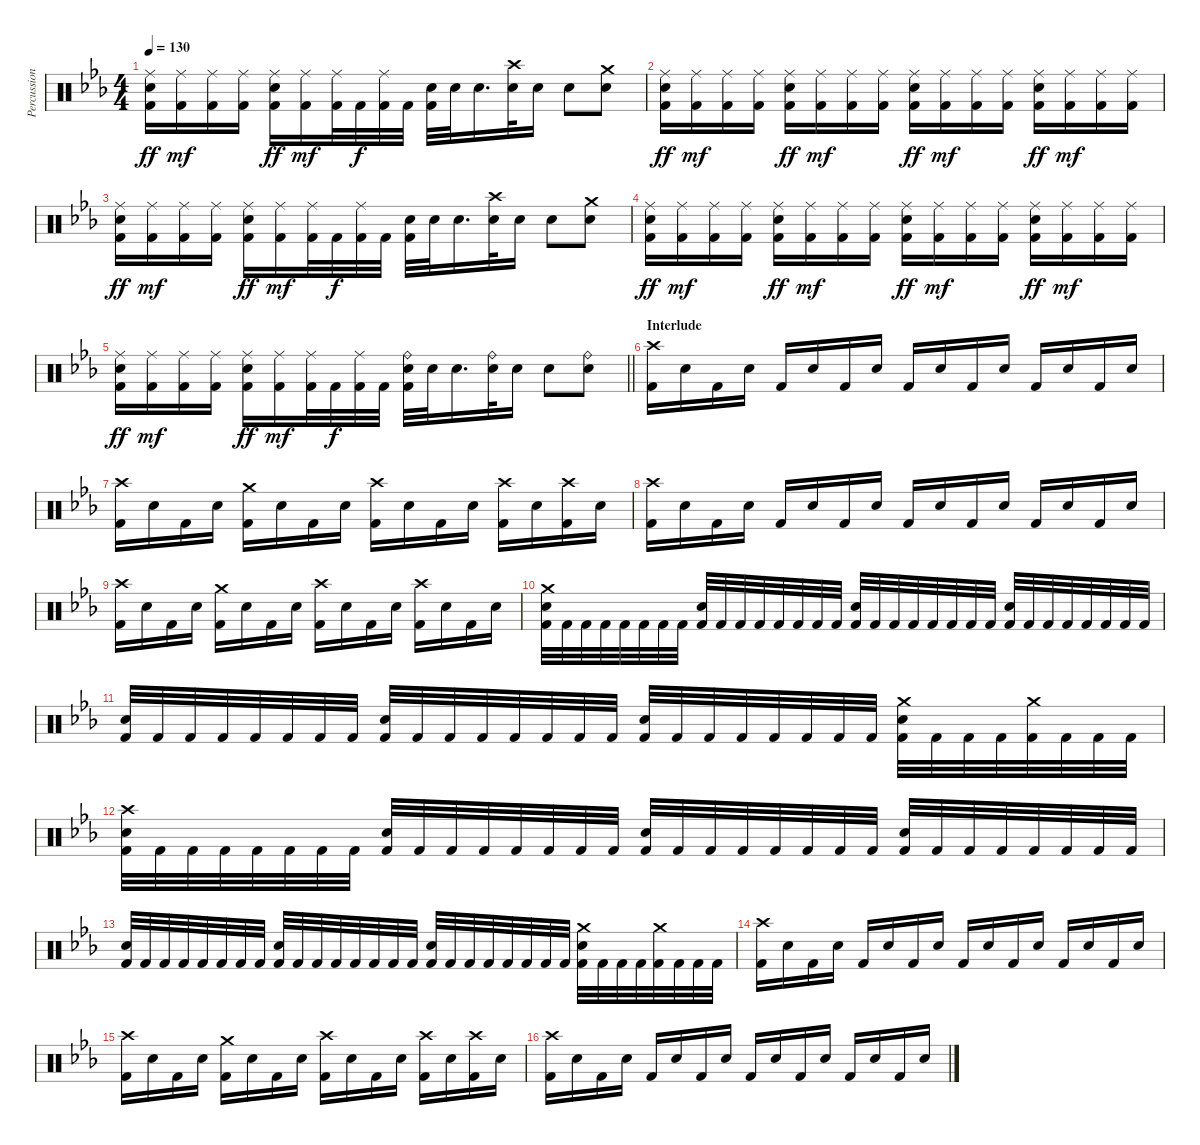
\track ("Percussion" "Percussion") {instrument percussion}
\staff {score}
\articulation defaults
\ts (4 4)
\tempo 130
\clef neutral
\ks eb
("Ride (middle)" "Electric Snare (hit)" "Kick (hit) 2").16{dy ff} ("Ride (middle)" "Kick (hit) 2").16{dy mf} ("Ride (middle)" "Kick (hit) 2").16 ("Ride (middle)" "Kick (hit) 2").16 ("Ride (middle)" "Electric Snare (hit)" "Kick (hit) 2").16{dy ff} ("Ride (middle)" "Kick (hit) 2").16{dy mf} ("Ride (middle)" "Kick (hit) 2").32 "Kick (hit) 2".32{dy f} ("Ride (middle)" "Kick (hit) 2").32 "Kick (hit) 2".32 ("Electric Snare (hit)" "Kick (hit) 2").32 "Electric Snare (hit)".32 "Electric Snare (hit)".16{d} ("Crash high (hit)" "Electric Snare (hit)").32 "Electric Snare (hit)".16 "Electric Snare (hit)".8 ("Crash medium (hit)" "Electric Snare (hit)").8 |
("Ride (middle)" "Electric Snare (hit)" "Kick (hit) 2").16{dy ff} ("Ride (middle)" "Kick (hit) 2").16{dy mf} ("Ride (middle)" "Kick (hit) 2").16 ("Ride (middle)" "Kick (hit) 2").16 ("Ride (middle)" "Electric Snare (hit)" "Kick (hit) 2").16{dy ff} ("Ride (middle)" "Kick (hit) 2").16{dy mf} ("Ride (middle)" "Kick (hit) 2").16 ("Ride (middle)" "Kick (hit) 2").16 ("Ride (middle)" "Electric Snare (hit)" "Kick (hit) 2").16{dy ff} ("Ride (middle)" "Kick (hit) 2").16{dy mf} ("Ride (middle)" "Kick (hit) 2").16 ("Ride (middle)" "Kick (hit) 2").16 ("Ride (middle)" "Electric Snare (hit)" "Kick (hit) 2").16{dy ff} ("Ride (middle)" "Kick (hit) 2").16{dy mf} ("Ride (middle)" "Kick (hit) 2").16 ("Ride (middle)" "Kick (hit) 2").16 |
("Ride (middle)" "Electric Snare (hit)" "Kick (hit) 2").16{dy ff} ("Ride (middle)" "Kick (hit) 2").16{dy mf} ("Ride (middle)" "Kick (hit) 2").16 ("Ride (middle)" "Kick (hit) 2").16 ("Ride (middle)" "Electric Snare (hit)" "Kick (hit) 2").16{dy ff} ("Ride (middle)" "Kick (hit) 2").16{dy mf} ("Ride (middle)" "Kick (hit) 2").32 "Kick (hit) 2".32{dy f} ("Ride (middle)" "Kick (hit) 2").32 "Kick (hit) 2".32 ("Electric Snare (hit)" "Kick (hit) 2").32 "Electric Snare (hit)".32 "Electric Snare (hit)".16{d} ("Crash high (hit)" "Electric Snare (hit)").32 "Electric Snare (hit)".16 "Electric Snare (hit)".8 ("Crash medium (hit)" "Electric Snare (hit)").8 |
("Ride (middle)" "Electric Snare (hit)" "Kick (hit) 2").16{dy ff} ("Ride (middle)" "Kick (hit) 2").16{dy mf} ("Ride (middle)" "Kick (hit) 2").16 ("Ride (middle)" "Kick (hit) 2").16 ("Ride (middle)" "Electric Snare (hit)" "Kick (hit) 2").16{dy ff} ("Ride (middle)" "Kick (hit) 2").16{dy mf} ("Ride (middle)" "Kick (hit) 2").16 ("Ride (middle)" "Kick (hit) 2").16 ("Ride (middle)" "Electric Snare (hit)" "Kick (hit) 2").16{dy ff} ("Ride (middle)" "Kick (hit) 2").16{dy mf} ("Ride (middle)" "Kick (hit) 2").16 ("Ride (middle)" "Kick (hit) 2").16 ("Ride (middle)" "Electric Snare (hit)" "Kick (hit) 2").16{dy ff} ("Ride (middle)" "Kick (hit) 2").16{dy mf} ("Ride (middle)" "Kick (hit) 2").16 ("Ride (middle)" "Kick (hit) 2").16 |
\barLineRight lightlight
("Ride (middle)" "Electric Snare (hit)" "Kick (hit) 2").16{dy ff} ("Ride (middle)" "Kick (hit) 2").16{dy mf} ("Ride (middle)" "Kick (hit) 2").16 ("Ride (middle)" "Kick (hit) 2").16 ("Ride (middle)" "Electric Snare (hit)" "Kick (hit) 2").16{dy ff} ("Ride (middle)" "Kick (hit) 2").16{dy mf} ("Ride (middle)" "Kick (hit) 2").32 "Kick (hit) 2".32{dy f} ("Ride (middle)" "Kick (hit) 2").32 "Kick (hit) 2".32 ("Ride (bell)" "Electric Snare (hit)" "Kick (hit) 2").32 "Electric Snare (hit)".32 "Electric Snare (hit)".16{d} ("Ride (bell)" "Electric Snare (hit)").32 "Electric Snare (hit)".16 "Electric Snare (hit)".8 ("Ride (bell)" "Electric Snare (hit)").8 |
\section ("" "Interlude")
("Crash high (hit)" "Kick (hit) 2").16 "Electric Snare (hit)".16 "Kick (hit) 2".16 "Electric Snare (hit)".16 "Kick (hit) 2".16 "Electric Snare (hit)".16 "Kick (hit) 2".16 "Electric Snare (hit)".16 "Kick (hit) 2".16 "Electric Snare (hit)".16 "Kick (hit) 2".16 "Electric Snare (hit)".16 "Kick (hit) 2".16 "Electric Snare (hit)".16 "Kick (hit) 2".16 "Electric Snare (hit)".16 |
\ks cminor
("Crash high (hit)" "Kick (hit) 2").16 "Electric Snare (hit)".16 "Kick (hit) 2".16 "Electric Snare (hit)".16 ("Crash medium (hit)" "Kick (hit) 2").16 "Electric Snare (hit)".16 "Kick (hit) 2".16 "Electric Snare (hit)".16 ("Crash high (hit)" "Kick (hit) 2").16 "Electric Snare (hit)".16 "Kick (hit) 2".16 "Electric Snare (hit)".16 ("Crash high (hit)" "Kick (hit) 2").16 "Electric Snare (hit)".16 ("Crash high (hit)" "Kick (hit) 2").16 "Electric Snare (hit)".16 |
\ks eb
("Crash high (hit)" "Kick (hit) 2").16 "Electric Snare (hit)".16 "Kick (hit) 2".16 "Electric Snare (hit)".16 "Kick (hit) 2".16 "Electric Snare (hit)".16 "Kick (hit) 2".16 "Electric Snare (hit)".16 "Kick (hit) 2".16 "Electric Snare (hit)".16 "Kick (hit) 2".16 "Electric Snare (hit)".16 "Kick (hit) 2".16 "Electric Snare (hit)".16 "Kick (hit) 2".16 "Electric Snare (hit)".16 |
\ks cminor
("Crash high (hit)" "Kick (hit) 2").16 "Electric Snare (hit)".16 "Kick (hit) 2".16 "Electric Snare (hit)".16 ("Crash medium (hit)" "Kick (hit) 2").16 "Electric Snare (hit)".16 "Kick (hit) 2".16 "Electric Snare (hit)".16 ("Crash high (hit)" "Kick (hit) 2").16 "Electric Snare (hit)".16 "Kick (hit) 2".16 "Electric Snare (hit)".16 ("Crash high (hit)" "Kick (hit) 2").16 "Electric Snare (hit)".16 "Kick (hit) 2".16 "Electric Snare (hit)".16 |
\ks eb
("Crash medium (hit)" "Electric Snare (hit)" "Kick (hit) 2").32 "Kick (hit) 2".32 "Kick (hit) 2".32 "Kick (hit) 2".32 "Kick (hit) 2".32 "Kick (hit) 2".32 "Kick (hit) 2".32 "Kick (hit) 2".32 ("Electric Snare (hit)" "Kick (hit) 2").32 "Kick (hit) 2".32 "Kick (hit) 2".32 "Kick (hit) 2".32 "Kick (hit) 2".32 "Kick (hit) 2".32 "Kick (hit) 2".32 "Kick (hit) 2".32 ("Electric Snare (hit)" "Kick (hit) 2").32 "Kick (hit) 2".32 "Kick (hit) 2".32 "Kick (hit) 2".32 "Kick (hit) 2".32 "Kick (hit) 2".32 "Kick (hit) 2".32 "Kick (hit) 2".32 ("Electric Snare (hit)" "Kick (hit) 2").32 "Kick (hit) 2".32 "Kick (hit) 2".32 "Kick (hit) 2".32 "Kick (hit) 2".32 "Kick (hit) 2".32 "Kick (hit) 2".32 "Kick (hit) 2".32 |
\ks cminor
("Electric Snare (hit)" "Kick (hit) 2").32 "Kick (hit) 2".32 "Kick (hit) 2".32 "Kick (hit) 2".32 "Kick (hit) 2".32 "Kick (hit) 2".32 "Kick (hit) 2".32 "Kick (hit) 2".32 ("Electric Snare (hit)" "Kick (hit) 2").32 "Kick (hit) 2".32 "Kick (hit) 2".32 "Kick (hit) 2".32 "Kick (hit) 2".32 "Kick (hit) 2".32 "Kick (hit) 2".32 "Kick (hit) 2".32 ("Electric Snare (hit)" "Kick (hit) 2").32 "Kick (hit) 2".32 "Kick (hit) 2".32 "Kick (hit) 2".32 "Kick (hit) 2".32 "Kick (hit) 2".32 "Kick (hit) 2".32 "Kick (hit) 2".32 ("Crash medium (hit)" "Electric Snare (hit)" "Kick (hit) 2").32 "Kick (hit) 2".32 "Kick (hit) 2".32 "Kick (hit) 2".32 ("Crash medium (hit)" "Kick (hit) 2").32 "Kick (hit) 2".32 "Kick (hit) 2".32 "Kick (hit) 2".32 |
\ks eb
("Crash high (hit)" "Electric Snare (hit)" "Kick (hit) 2").32 "Kick (hit) 2".32 "Kick (hit) 2".32 "Kick (hit) 2".32 "Kick (hit) 2".32 "Kick (hit) 2".32 "Kick (hit) 2".32 "Kick (hit) 2".32 ("Electric Snare (hit)" "Kick (hit) 2").32 "Kick (hit) 2".32 "Kick (hit) 2".32 "Kick (hit) 2".32 "Kick (hit) 2".32 "Kick (hit) 2".32 "Kick (hit) 2".32 "Kick (hit) 2".32 ("Electric Snare (hit)" "Kick (hit) 2").32 "Kick (hit) 2".32 "Kick (hit) 2".32 "Kick (hit) 2".32 "Kick (hit) 2".32 "Kick (hit) 2".32 "Kick (hit) 2".32 "Kick (hit) 2".32 ("Electric Snare (hit)" "Kick (hit) 2").32 "Kick (hit) 2".32 "Kick (hit) 2".32 "Kick (hit) 2".32 "Kick (hit) 2".32 "Kick (hit) 2".32 "Kick (hit) 2".32 "Kick (hit) 2".32 |
\ks cminor
("Electric Snare (hit)" "Kick (hit) 2").32 "Kick (hit) 2".32 "Kick (hit) 2".32 "Kick (hit) 2".32 "Kick (hit) 2".32 "Kick (hit) 2".32 "Kick (hit) 2".32 "Kick (hit) 2".32 ("Electric Snare (hit)" "Kick (hit) 2").32 "Kick (hit) 2".32 "Kick (hit) 2".32 "Kick (hit) 2".32 "Kick (hit) 2".32 "Kick (hit) 2".32 "Kick (hit) 2".32 "Kick (hit) 2".32 ("Electric Snare (hit)" "Kick (hit) 2").32 "Kick (hit) 2".32 "Kick (hit) 2".32 "Kick (hit) 2".32 "Kick (hit) 2".32 "Kick (hit) 2".32 "Kick (hit) 2".32 "Kick (hit) 2".32 ("Crash medium (hit)" "Electric Snare (hit)" "Kick (hit) 2").32 "Kick (hit) 2".32 "Kick (hit) 2".32 "Kick (hit) 2".32 ("Crash medium (hit)" "Kick (hit) 2").32 "Kick (hit) 2".32 "Kick (hit) 2".32 "Kick (hit) 2".32 |
\ks eb
("Crash high (hit)" "Kick (hit) 2").16 "Electric Snare (hit)".16 "Kick (hit) 2".16 "Electric Snare (hit)".16 "Kick (hit) 2".16 "Electric Snare (hit)".16 "Kick (hit) 2".16 "Electric Snare (hit)".16 "Kick (hit) 2".16 "Electric Snare (hit)".16 "Kick (hit) 2".16 "Electric Snare (hit)".16 "Kick (hit) 2".16 "Electric Snare (hit)".16 "Kick (hit) 2".16 "Electric Snare (hit)".16 |
\ks cminor
("Crash high (hit)" "Kick (hit) 2").16 "Electric Snare (hit)".16 "Kick (hit) 2".16 "Electric Snare (hit)".16 ("Crash medium (hit)" "Kick (hit) 2").16 "Electric Snare (hit)".16 "Kick (hit) 2".16 "Electric Snare (hit)".16 ("Crash high (hit)" "Kick (hit) 2").16 "Electric Snare (hit)".16 "Kick (hit) 2".16 "Electric Snare (hit)".16 ("Crash high (hit)" "Kick (hit) 2").16 "Electric Snare (hit)".16 ("Crash high (hit)" "Kick (hit) 2").16 "Electric Snare (hit)".16 |
\ks eb
("Crash high (hit)" "Kick (hit) 2").16 "Electric Snare (hit)".16 "Kick (hit) 2".16 "Electric Snare (hit)".16 "Kick (hit) 2".16 "Electric Snare (hit)".16 "Kick (hit) 2".16 "Electric Snare (hit)".16 "Kick (hit) 2".16 "Electric Snare (hit)".16 "Kick (hit) 2".16 "Electric Snare (hit)".16 "Kick (hit) 2".16 "Electric Snare (hit)".16 "Kick (hit) 2".16 "Electric Snare (hit)".16
